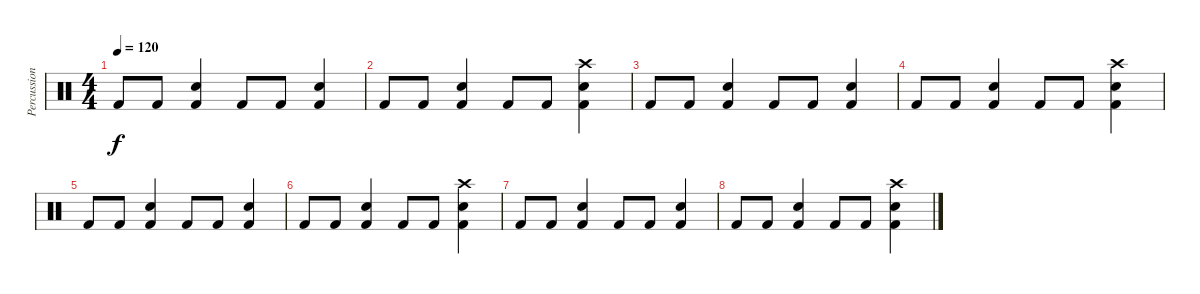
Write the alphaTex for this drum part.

\track ("Percussion" "Percussion") {instrument percussion}
\staff {score}
\articulation defaults
\ts (4 4)
\tempo 120
\clef neutral
\ks c "Kick (hit) 2".8{dy f} "Kick (hit) 2".8
("Kick (hit) 2" "Electric Snare (hit)").4 "Kick (hit) 2".8 "Kick (hit) 2".8 ("Kick (hit) 2" "Electric Snare (hit)").4 |
"Kick (hit) 2".8 "Kick (hit) 2".8 ("Kick (hit) 2" "Electric Snare (hit)").4 "Kick (hit) 2".8 "Kick (hit) 2".8 ("Kick (hit) 2" "Electric Snare (hit)" "Crash high (hit)").4 |
"Kick (hit) 2".8 "Kick (hit) 2".8 ("Kick (hit) 2" "Electric Snare (hit)").4 "Kick (hit) 2".8 "Kick (hit) 2".8 ("Kick (hit) 2" "Electric Snare (hit)").4 |
"Kick (hit) 2".8 "Kick (hit) 2".8 ("Kick (hit) 2" "Electric Snare (hit)").4 "Kick (hit) 2".8 "Kick (hit) 2".8 ("Kick (hit) 2" "Electric Snare (hit)" "Crash high (hit)").4 |
"Kick (hit) 2".8 "Kick (hit) 2".8 ("Kick (hit) 2" "Electric Snare (hit)").4 "Kick (hit) 2".8 "Kick (hit) 2".8 ("Kick (hit) 2" "Electric Snare (hit)").4 |
"Kick (hit) 2".8 "Kick (hit) 2".8 ("Kick (hit) 2" "Electric Snare (hit)").4 "Kick (hit) 2".8 "Kick (hit) 2".8 ("Kick (hit) 2" "Electric Snare (hit)" "Crash high (hit)").4 |
"Kick (hit) 2".8 "Kick (hit) 2".8 ("Kick (hit) 2" "Electric Snare (hit)").4 "Kick (hit) 2".8 "Kick (hit) 2".8 ("Kick (hit) 2" "Electric Snare (hit)").4 |
"Kick (hit) 2".8 "Kick (hit) 2".8 ("Kick (hit) 2" "Electric Snare (hit)").4 "Kick (hit) 2".8 "Kick (hit) 2".8 ("Kick (hit) 2" "Electric Snare (hit)" "Crash high (hit)").4
